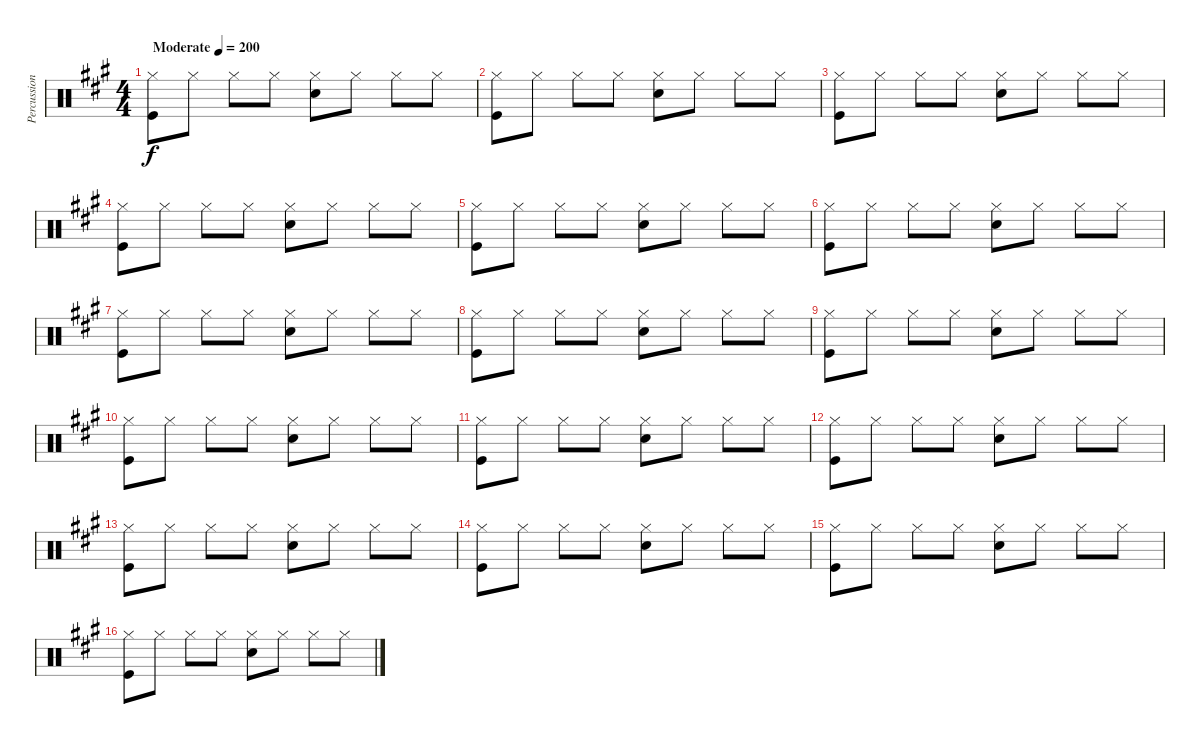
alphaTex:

\track ("Percussion" "Percussion") {instrument percussion}
\staff {score}
\articulation defaults
\ts (4 4)
\tempo (200 "Moderate")
\clef neutral
\ks a
("Hi-Hat (closed)" "Kick (hit)").8{dy f} "Hi-Hat (closed)".8 "Hi-Hat (closed)".8 "Hi-Hat (closed)".8 ("Hi-Hat (closed)" "Snare (hit) 2").8 "Hi-Hat (closed)".8 "Hi-Hat (closed)".8 "Hi-Hat (closed)".8 |
("Hi-Hat (closed)" "Kick (hit)").8 "Hi-Hat (closed)".8 "Hi-Hat (closed)".8 "Hi-Hat (closed)".8 ("Hi-Hat (closed)" "Snare (hit) 2").8 "Hi-Hat (closed)".8 "Hi-Hat (closed)".8 "Hi-Hat (closed)".8 |
("Hi-Hat (closed)" "Kick (hit)").8 "Hi-Hat (closed)".8 "Hi-Hat (closed)".8 "Hi-Hat (closed)".8 ("Hi-Hat (closed)" "Snare (hit) 2").8 "Hi-Hat (closed)".8 "Hi-Hat (closed)".8 "Hi-Hat (closed)".8 |
("Hi-Hat (closed)" "Kick (hit)").8 "Hi-Hat (closed)".8 "Hi-Hat (closed)".8 "Hi-Hat (closed)".8 ("Hi-Hat (closed)" "Snare (hit) 2").8 "Hi-Hat (closed)".8 "Hi-Hat (closed)".8 "Hi-Hat (closed)".8 |
("Hi-Hat (closed)" "Kick (hit)").8 "Hi-Hat (closed)".8 "Hi-Hat (closed)".8 "Hi-Hat (closed)".8 ("Hi-Hat (closed)" "Snare (hit) 2").8 "Hi-Hat (closed)".8 "Hi-Hat (closed)".8 "Hi-Hat (closed)".8 |
("Hi-Hat (closed)" "Kick (hit)").8 "Hi-Hat (closed)".8 "Hi-Hat (closed)".8 "Hi-Hat (closed)".8 ("Hi-Hat (closed)" "Snare (hit) 2").8 "Hi-Hat (closed)".8 "Hi-Hat (closed)".8 "Hi-Hat (closed)".8 |
("Hi-Hat (closed)" "Kick (hit)").8 "Hi-Hat (closed)".8 "Hi-Hat (closed)".8 "Hi-Hat (closed)".8 ("Hi-Hat (closed)" "Snare (hit) 2").8 "Hi-Hat (closed)".8 "Hi-Hat (closed)".8 "Hi-Hat (closed)".8 |
("Hi-Hat (closed)" "Kick (hit)").8 "Hi-Hat (closed)".8 "Hi-Hat (closed)".8 "Hi-Hat (closed)".8 ("Hi-Hat (closed)" "Snare (hit) 2").8 "Hi-Hat (closed)".8 "Hi-Hat (closed)".8 "Hi-Hat (closed)".8 |
("Hi-Hat (closed)" "Kick (hit)").8 "Hi-Hat (closed)".8 "Hi-Hat (closed)".8 "Hi-Hat (closed)".8 ("Hi-Hat (closed)" "Snare (hit) 2").8 "Hi-Hat (closed)".8 "Hi-Hat (closed)".8 "Hi-Hat (closed)".8 |
("Hi-Hat (closed)" "Kick (hit)").8 "Hi-Hat (closed)".8 "Hi-Hat (closed)".8 "Hi-Hat (closed)".8 ("Hi-Hat (closed)" "Snare (hit) 2").8 "Hi-Hat (closed)".8 "Hi-Hat (closed)".8 "Hi-Hat (closed)".8 |
("Hi-Hat (closed)" "Kick (hit)").8 "Hi-Hat (closed)".8 "Hi-Hat (closed)".8 "Hi-Hat (closed)".8 ("Hi-Hat (closed)" "Snare (hit) 2").8 "Hi-Hat (closed)".8 "Hi-Hat (closed)".8 "Hi-Hat (closed)".8 |
("Hi-Hat (closed)" "Kick (hit)").8 "Hi-Hat (closed)".8 "Hi-Hat (closed)".8 "Hi-Hat (closed)".8 ("Hi-Hat (closed)" "Snare (hit) 2").8 "Hi-Hat (closed)".8 "Hi-Hat (closed)".8 "Hi-Hat (closed)".8 |
("Hi-Hat (closed)" "Kick (hit)").8 "Hi-Hat (closed)".8 "Hi-Hat (closed)".8 "Hi-Hat (closed)".8 ("Hi-Hat (closed)" "Snare (hit) 2").8 "Hi-Hat (closed)".8 "Hi-Hat (closed)".8 "Hi-Hat (closed)".8 |
("Hi-Hat (closed)" "Kick (hit)").8 "Hi-Hat (closed)".8 "Hi-Hat (closed)".8 "Hi-Hat (closed)".8 ("Hi-Hat (closed)" "Snare (hit) 2").8 "Hi-Hat (closed)".8 "Hi-Hat (closed)".8 "Hi-Hat (closed)".8 |
("Hi-Hat (closed)" "Kick (hit)").8 "Hi-Hat (closed)".8 "Hi-Hat (closed)".8 "Hi-Hat (closed)".8 ("Hi-Hat (closed)" "Snare (hit) 2").8 "Hi-Hat (closed)".8 "Hi-Hat (closed)".8 "Hi-Hat (closed)".8 |
("Hi-Hat (closed)" "Kick (hit)").8 "Hi-Hat (closed)".8 "Hi-Hat (closed)".8 "Hi-Hat (closed)".8 ("Hi-Hat (closed)" "Snare (hit) 2").8 "Hi-Hat (closed)".8 "Hi-Hat (closed)".8 "Hi-Hat (closed)".8
